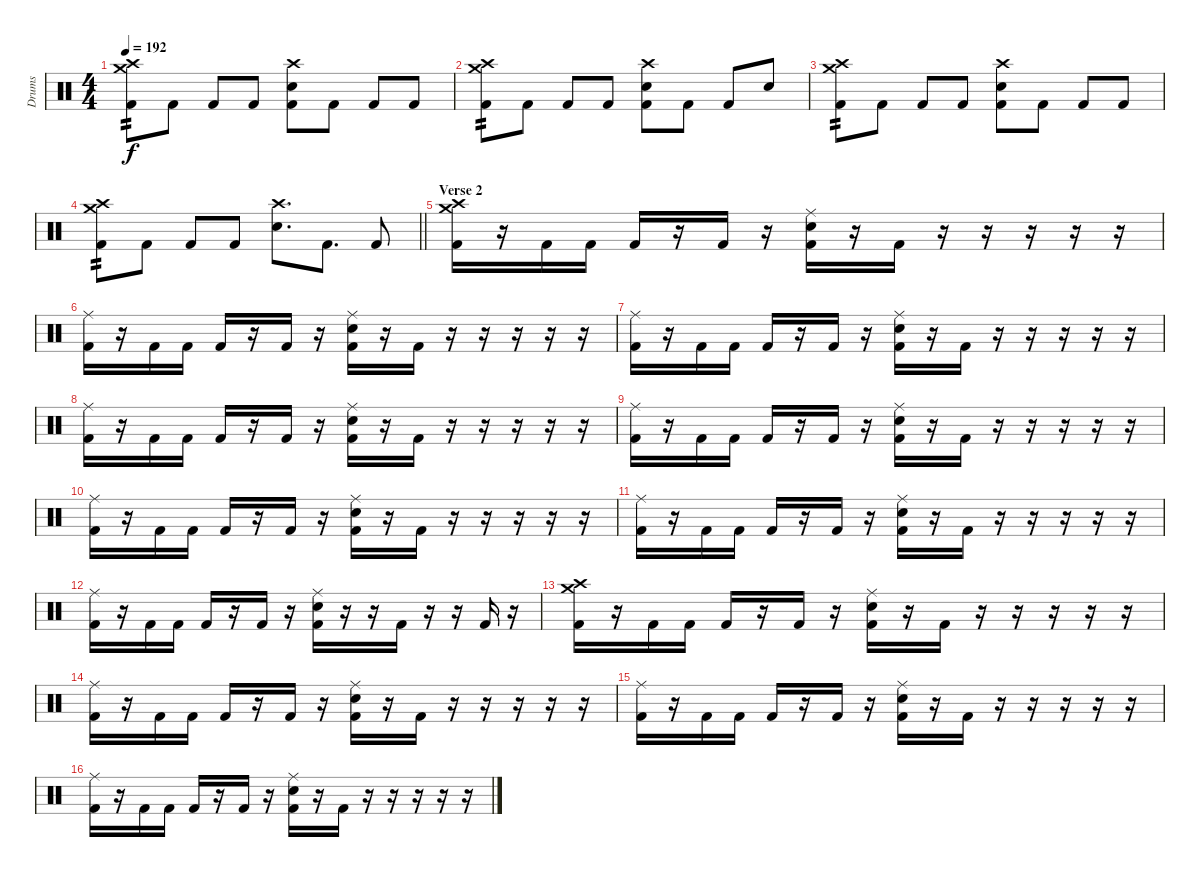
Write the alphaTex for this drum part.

\track ("Drums" "Drums") {instrument percussion}
\staff {score}
\articulation defaults
\ts (4 4)
\tempo 192
\clef neutral
\ks c
("Crash high (hit)" "Crash medium (hit)" "Kick (hit) 2").8{tp 2 dy f} "Kick (hit) 2".8 "Kick (hit) 2".8 "Kick (hit) 2".8 ("Crash high (hit)" "Snare (hit) 2" "Kick (hit) 2").8 "Kick (hit) 2".8 "Kick (hit) 2".8 "Kick (hit) 2".8 |
("Crash high (hit)" "Crash medium (hit)" "Kick (hit) 2").8{tp 2} "Kick (hit) 2".8 "Kick (hit) 2".8 "Kick (hit) 2".8 ("Crash high (hit)" "Snare (hit) 2" "Kick (hit) 2").8 "Kick (hit) 2".8 "Kick (hit) 2".8 "Snare (hit) 2".8 |
("Crash high (hit)" "Crash medium (hit)" "Kick (hit) 2").8{tp 2} "Kick (hit) 2".8 "Kick (hit) 2".8 "Kick (hit) 2".8 ("Crash high (hit)" "Snare (hit) 2" "Kick (hit) 2").8 "Kick (hit) 2".8 "Kick (hit) 2".8 "Kick (hit) 2".8 |
\barLineRight lightlight
("Crash high (hit)" "Crash medium (hit)" "Kick (hit) 2").8{tp 2} "Kick (hit) 2".8 "Kick (hit) 2".8 "Kick (hit) 2".8 ("Crash high (hit)" "Snare (hit) 2").8{d} "Kick (hit) 2".8{d} "Kick (hit) 2".8 |
\section ("" "Verse 2")
("Crash high (hit)" "Crash medium (hit)" "Kick (hit) 2").16 r.16 "Kick (hit) 2".16 "Kick (hit) 2".16 "Kick (hit) 2".16 r.16 "Kick (hit) 2".16 r.16 ("Ride (middle)" "Snare (hit) 2" "Kick (hit) 2").16 r.16 "Kick (hit) 2".16 r.16 r.16 r.16 r.16 r.16 |
("Ride (middle)" "Kick (hit) 2").16 r.16 "Kick (hit) 2".16 "Kick (hit) 2".16 "Kick (hit) 2".16 r.16 "Kick (hit) 2".16 r.16 ("Ride (middle)" "Snare (hit) 2" "Kick (hit) 2").16 r.16 "Kick (hit) 2".16 r.16 r.16 r.16 r.16 r.16 |
("Ride (middle)" "Kick (hit) 2").16 r.16 "Kick (hit) 2".16 "Kick (hit) 2".16 "Kick (hit) 2".16 r.16 "Kick (hit) 2".16 r.16 ("Ride (middle)" "Snare (hit) 2" "Kick (hit) 2").16 r.16 "Kick (hit) 2".16 r.16 r.16 r.16 r.16 r.16 |
("Ride (middle)" "Kick (hit) 2").16 r.16 "Kick (hit) 2".16 "Kick (hit) 2".16 "Kick (hit) 2".16 r.16 "Kick (hit) 2".16 r.16 ("Ride (middle)" "Snare (hit) 2" "Kick (hit) 2").16 r.16 "Kick (hit) 2".16 r.16 r.16 r.16 r.16 r.16 |
("Ride (middle)" "Kick (hit) 2").16 r.16 "Kick (hit) 2".16 "Kick (hit) 2".16 "Kick (hit) 2".16 r.16 "Kick (hit) 2".16 r.16 ("Ride (middle)" "Snare (hit) 2" "Kick (hit) 2").16 r.16 "Kick (hit) 2".16 r.16 r.16 r.16 r.16 r.16 |
("Ride (middle)" "Kick (hit) 2").16 r.16 "Kick (hit) 2".16 "Kick (hit) 2".16 "Kick (hit) 2".16 r.16 "Kick (hit) 2".16 r.16 ("Ride (middle)" "Snare (hit) 2" "Kick (hit) 2").16 r.16 "Kick (hit) 2".16 r.16 r.16 r.16 r.16 r.16 |
("Ride (middle)" "Kick (hit) 2").16 r.16 "Kick (hit) 2".16 "Kick (hit) 2".16 "Kick (hit) 2".16 r.16 "Kick (hit) 2".16 r.16 ("Ride (middle)" "Snare (hit) 2" "Kick (hit) 2").16 r.16 "Kick (hit) 2".16 r.16 r.16 r.16 r.16 r.16 |
("Ride (middle)" "Kick (hit) 2").16 r.16 "Kick (hit) 2".16 "Kick (hit) 2".16 "Kick (hit) 2".16 r.16 "Kick (hit) 2".16 r.16 ("Ride (middle)" "Snare (hit) 2" "Kick (hit) 2").16 r.16 r.16 "Kick (hit) 2".16 r.16 r.16 "Kick (hit) 2".16 r.16 |
("Crash high (hit)" "Crash medium (hit)" "Kick (hit) 2").16 r.16 "Kick (hit) 2".16 "Kick (hit) 2".16 "Kick (hit) 2".16 r.16 "Kick (hit) 2".16 r.16 ("Ride (middle)" "Snare (hit) 2" "Kick (hit) 2").16 r.16 "Kick (hit) 2".16 r.16 r.16 r.16 r.16 r.16 |
("Ride (middle)" "Kick (hit) 2").16 r.16 "Kick (hit) 2".16 "Kick (hit) 2".16 "Kick (hit) 2".16 r.16 "Kick (hit) 2".16 r.16 ("Ride (middle)" "Snare (hit) 2" "Kick (hit) 2").16 r.16 "Kick (hit) 2".16 r.16 r.16 r.16 r.16 r.16 |
("Ride (middle)" "Kick (hit) 2").16 r.16 "Kick (hit) 2".16 "Kick (hit) 2".16 "Kick (hit) 2".16 r.16 "Kick (hit) 2".16 r.16 ("Ride (middle)" "Snare (hit) 2" "Kick (hit) 2").16 r.16 "Kick (hit) 2".16 r.16 r.16 r.16 r.16 r.16 |
("Ride (middle)" "Kick (hit) 2").16 r.16 "Kick (hit) 2".16 "Kick (hit) 2".16 "Kick (hit) 2".16 r.16 "Kick (hit) 2".16 r.16 ("Ride (middle)" "Snare (hit) 2" "Kick (hit) 2").16 r.16 "Kick (hit) 2".16 r.16 r.16 r.16 r.16 r.16
